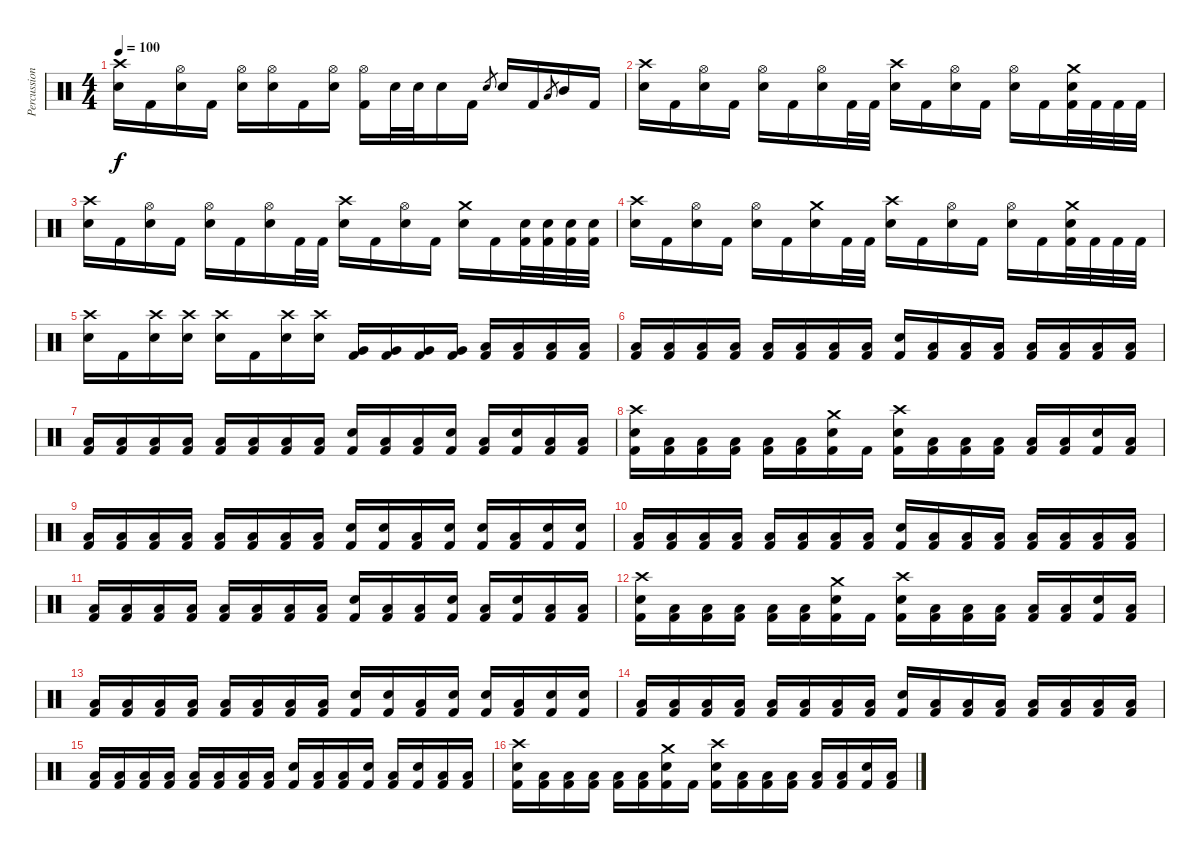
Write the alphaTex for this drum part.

\track ("Percussion" "Percussion") {instrument percussion}
\staff {score}
\articulation defaults
\ts (4 4)
\tempo 100
\clef neutral
\ks c
("Crash high (hit)" "Electric Snare (hit)").16{dy f} "Kick (hit) 2".16 ("Hi-Hat (open)" "Electric Snare (hit)").16 "Kick (hit) 2".16 ("Hi-Hat (open)" "Electric Snare (hit)").16 ("Hi-Hat (open)" "Electric Snare (hit)").16 "Kick (hit) 2".16 ("Hi-Hat (open)" "Electric Snare (hit)").16 ("Hi-Hat (open)" "Kick (hit) 2").16 "Electric Snare (hit)".32 "Electric Snare (hit)".32 "Electric Snare (hit)".16 "Kick (hit) 2".16 "Electric Snare (hit)".8{gr} "Electric Snare (hit)".16 "Kick (hit) 2".16 "Low Tom (hit)".8{gr} "Mid Tom (hit)".16 "Kick (hit) 2".16 |
("Crash high (hit)" "Electric Snare (hit)").16 "Kick (hit) 2".16 ("Hi-Hat (open)" "Electric Snare (hit)").16 "Kick (hit) 2".16 ("Hi-Hat (open)" "Electric Snare (hit)").16 "Kick (hit) 2".16 ("Hi-Hat (open)" "Electric Snare (hit)").16 "Kick (hit) 2".32 "Kick (hit) 2".32 ("Crash high (hit)" "Electric Snare (hit)").16 "Kick (hit) 2".16 ("Hi-Hat (open)" "Electric Snare (hit)").16 "Kick (hit) 2".16 ("Hi-Hat (open)" "Electric Snare (hit)").16 "Kick (hit) 2".16 ("Crash medium (hit)" "Electric Snare (hit)" "Kick (hit) 2").32 "Kick (hit) 2".32 "Kick (hit) 2".32 "Kick (hit) 2".32 |
("Crash high (hit)" "Electric Snare (hit)").16 "Kick (hit) 2".16 ("Hi-Hat (open)" "Electric Snare (hit)").16 "Kick (hit) 2".16 ("Hi-Hat (open)" "Electric Snare (hit)").16 "Kick (hit) 2".16 ("Hi-Hat (open)" "Electric Snare (hit)").16 "Kick (hit) 2".32 "Kick (hit) 2".32 ("Crash high (hit)" "Electric Snare (hit)").16 "Kick (hit) 2".16 ("Hi-Hat (open)" "Electric Snare (hit)").16 "Kick (hit) 2".16 ("Crash medium (hit)" "Electric Snare (hit)").16 "Kick (hit) 2".16 ("Electric Snare (hit)" "Kick (hit) 2").32 ("Electric Snare (hit)" "Kick (hit) 2").32 ("Electric Snare (hit)" "Kick (hit) 2").32 ("Electric Snare (hit)" "Kick (hit) 2").32 |
("Crash high (hit)" "Electric Snare (hit)").16 "Kick (hit) 2".16 ("Hi-Hat (open)" "Electric Snare (hit)").16 "Kick (hit) 2".16 ("Hi-Hat (open)" "Electric Snare (hit)").16 "Kick (hit) 2".16 ("Crash medium (hit)" "Electric Snare (hit)").16 "Kick (hit) 2".32 "Kick (hit) 2".32 ("Crash high (hit)" "Electric Snare (hit)").16 "Kick (hit) 2".16 ("Hi-Hat (open)" "Electric Snare (hit)").16 "Kick (hit) 2".16 ("Hi-Hat (open)" "Electric Snare (hit)").16 "Kick (hit) 2".16 ("Crash medium (hit)" "Electric Snare (hit)" "Kick (hit) 2").32 "Kick (hit) 2".32 "Kick (hit) 2".32 "Kick (hit) 2".32 |
("Crash high (hit)" "Electric Snare (hit)").16 "Kick (hit) 2".16 ("Crash high (hit)" "Electric Snare (hit)").16 ("Crash high (hit)" "Electric Snare (hit)").16 ("Crash high (hit)" "Electric Snare (hit)").16 "Kick (hit) 2".16 ("Crash high (hit)" "Electric Snare (hit)").16 ("Crash high (hit)" "Electric Snare (hit)").16 ("Very Low Tom (hit)" "Kick (hit) 2").16 ("Very Low Tom (hit)" "Kick (hit) 2").16 ("Very Low Tom (hit)" "Kick (hit) 2").16 ("Very Low Tom (hit)" "Kick (hit) 2").16 ("Low Tom (hit)" "Kick (hit) 2").16 ("Low Tom (hit)" "Kick (hit) 2").16 ("Low Tom (hit)" "Kick (hit) 2").16 ("Low Tom (hit)" "Kick (hit) 2").16 |
("Low Floor Tom (hit)" "Kick (hit) 2").16 ("Low Floor Tom (hit)" "Kick (hit) 2").16 ("Low Floor Tom (hit)" "Kick (hit) 2").16 ("Low Floor Tom (hit)" "Kick (hit) 2").16 ("Low Floor Tom (hit)" "Kick (hit) 2").16 ("Low Floor Tom (hit)" "Kick (hit) 2").16 ("Low Floor Tom (hit)" "Kick (hit) 2").16 ("Low Floor Tom (hit)" "Kick (hit) 2").16 ("Electric Snare (hit)" "Kick (hit) 2").16 ("Low Floor Tom (hit)" "Kick (hit) 2").16 ("Low Floor Tom (hit)" "Kick (hit) 2").16 ("Low Floor Tom (hit)" "Kick (hit) 2").16 ("Low Floor Tom (hit)" "Kick (hit) 2").16 ("Low Floor Tom (hit)" "Kick (hit) 2").16 ("Low Floor Tom (hit)" "Kick (hit) 2").16 ("Low Floor Tom (hit)" "Kick (hit) 2").16 |
("Low Floor Tom (hit)" "Kick (hit) 2").16 ("Low Floor Tom (hit)" "Kick (hit) 2").16 ("Low Floor Tom (hit)" "Kick (hit) 2").16 ("Low Floor Tom (hit)" "Kick (hit) 2").16 ("Low Floor Tom (hit)" "Kick (hit) 2").16 ("Low Floor Tom (hit)" "Kick (hit) 2").16 ("Low Floor Tom (hit)" "Kick (hit) 2").16 ("Low Floor Tom (hit)" "Kick (hit) 2").16 ("Electric Snare (hit)" "Kick (hit) 2").16 ("Low Floor Tom (hit)" "Kick (hit) 2").16 ("Low Floor Tom (hit)" "Kick (hit) 2").16 ("Electric Snare (hit)" "Kick (hit) 2").16 ("Low Floor Tom (hit)" "Kick (hit) 2").16 ("Electric Snare (hit)" "Kick (hit) 2").16 ("Low Floor Tom (hit)" "Kick (hit) 2").16 ("Low Floor Tom (hit)" "Kick (hit) 2").16 |
("Crash high (hit)" "Electric Snare (hit)" "Kick (hit) 2").16 ("Low Floor Tom (hit)" "Kick (hit) 2").16 ("Low Floor Tom (hit)" "Kick (hit) 2").16 ("Low Floor Tom (hit)" "Kick (hit) 2").16 ("Low Floor Tom (hit)" "Kick (hit) 2").16 ("Low Floor Tom (hit)" "Kick (hit) 2").16 ("Crash medium (hit)" "Electric Snare (hit)" "Kick (hit) 2").16 "Kick (hit) 2".16 ("Crash high (hit)" "Electric Snare (hit)" "Kick (hit) 2").16 ("Low Floor Tom (hit)" "Kick (hit) 2").16 ("Low Floor Tom (hit)" "Kick (hit) 2").16 ("Low Floor Tom (hit)" "Kick (hit) 2").16 ("Low Floor Tom (hit)" "Kick (hit) 2").16 ("Low Floor Tom (hit)" "Kick (hit) 2").16 ("Electric Snare (hit)" "Kick (hit) 2").16 ("Low Floor Tom (hit)" "Kick (hit) 2").16 |
("Low Floor Tom (hit)" "Kick (hit) 2").16 ("Low Floor Tom (hit)" "Kick (hit) 2").16 ("Low Floor Tom (hit)" "Kick (hit) 2").16 ("Low Floor Tom (hit)" "Kick (hit) 2").16 ("Low Floor Tom (hit)" "Kick (hit) 2").16 ("Low Floor Tom (hit)" "Kick (hit) 2").16 ("Low Floor Tom (hit)" "Kick (hit) 2").16 ("Low Floor Tom (hit)" "Kick (hit) 2").16 ("Electric Snare (hit)" "Kick (hit) 2").16 ("Electric Snare (hit)" "Kick (hit) 2").16 ("Low Floor Tom (hit)" "Kick (hit) 2").16 ("Electric Snare (hit)" "Kick (hit) 2").16 ("Electric Snare (hit)" "Kick (hit) 2").16 ("Low Floor Tom (hit)" "Kick (hit) 2").16 ("Electric Snare (hit)" "Kick (hit) 2").16 ("Electric Snare (hit)" "Kick (hit) 2").16 |
("Low Floor Tom (hit)" "Kick (hit) 2").16 ("Low Floor Tom (hit)" "Kick (hit) 2").16 ("Low Floor Tom (hit)" "Kick (hit) 2").16 ("Low Floor Tom (hit)" "Kick (hit) 2").16 ("Low Floor Tom (hit)" "Kick (hit) 2").16 ("Low Floor Tom (hit)" "Kick (hit) 2").16 ("Low Floor Tom (hit)" "Kick (hit) 2").16 ("Low Floor Tom (hit)" "Kick (hit) 2").16 ("Electric Snare (hit)" "Kick (hit) 2").16 ("Low Floor Tom (hit)" "Kick (hit) 2").16 ("Low Floor Tom (hit)" "Kick (hit) 2").16 ("Low Floor Tom (hit)" "Kick (hit) 2").16 ("Low Floor Tom (hit)" "Kick (hit) 2").16 ("Low Floor Tom (hit)" "Kick (hit) 2").16 ("Low Floor Tom (hit)" "Kick (hit) 2").16 ("Low Floor Tom (hit)" "Kick (hit) 2").16 |
("Low Floor Tom (hit)" "Kick (hit) 2").16 ("Low Floor Tom (hit)" "Kick (hit) 2").16 ("Low Floor Tom (hit)" "Kick (hit) 2").16 ("Low Floor Tom (hit)" "Kick (hit) 2").16 ("Low Floor Tom (hit)" "Kick (hit) 2").16 ("Low Floor Tom (hit)" "Kick (hit) 2").16 ("Low Floor Tom (hit)" "Kick (hit) 2").16 ("Low Floor Tom (hit)" "Kick (hit) 2").16 ("Electric Snare (hit)" "Kick (hit) 2").16 ("Low Floor Tom (hit)" "Kick (hit) 2").16 ("Low Floor Tom (hit)" "Kick (hit) 2").16 ("Electric Snare (hit)" "Kick (hit) 2").16 ("Low Floor Tom (hit)" "Kick (hit) 2").16 ("Electric Snare (hit)" "Kick (hit) 2").16 ("Low Floor Tom (hit)" "Kick (hit) 2").16 ("Low Floor Tom (hit)" "Kick (hit) 2").16 |
("Crash high (hit)" "Electric Snare (hit)" "Kick (hit) 2").16 ("Low Floor Tom (hit)" "Kick (hit) 2").16 ("Low Floor Tom (hit)" "Kick (hit) 2").16 ("Low Floor Tom (hit)" "Kick (hit) 2").16 ("Low Floor Tom (hit)" "Kick (hit) 2").16 ("Low Floor Tom (hit)" "Kick (hit) 2").16 ("Crash medium (hit)" "Electric Snare (hit)" "Kick (hit) 2").16 "Kick (hit) 2".16 ("Crash high (hit)" "Electric Snare (hit)" "Kick (hit) 2").16 ("Low Floor Tom (hit)" "Kick (hit) 2").16 ("Low Floor Tom (hit)" "Kick (hit) 2").16 ("Low Floor Tom (hit)" "Kick (hit) 2").16 ("Low Floor Tom (hit)" "Kick (hit) 2").16 ("Low Floor Tom (hit)" "Kick (hit) 2").16 ("Electric Snare (hit)" "Kick (hit) 2").16 ("Low Floor Tom (hit)" "Kick (hit) 2").16 |
("Low Floor Tom (hit)" "Kick (hit) 2").16 ("Low Floor Tom (hit)" "Kick (hit) 2").16 ("Low Floor Tom (hit)" "Kick (hit) 2").16 ("Low Floor Tom (hit)" "Kick (hit) 2").16 ("Low Floor Tom (hit)" "Kick (hit) 2").16 ("Low Floor Tom (hit)" "Kick (hit) 2").16 ("Low Floor Tom (hit)" "Kick (hit) 2").16 ("Low Floor Tom (hit)" "Kick (hit) 2").16 ("Electric Snare (hit)" "Kick (hit) 2").16 ("Electric Snare (hit)" "Kick (hit) 2").16 ("Low Floor Tom (hit)" "Kick (hit) 2").16 ("Electric Snare (hit)" "Kick (hit) 2").16 ("Electric Snare (hit)" "Kick (hit) 2").16 ("Low Floor Tom (hit)" "Kick (hit) 2").16 ("Electric Snare (hit)" "Kick (hit) 2").16 ("Electric Snare (hit)" "Kick (hit) 2").16 |
("Low Floor Tom (hit)" "Kick (hit) 2").16 ("Low Floor Tom (hit)" "Kick (hit) 2").16 ("Low Floor Tom (hit)" "Kick (hit) 2").16 ("Low Floor Tom (hit)" "Kick (hit) 2").16 ("Low Floor Tom (hit)" "Kick (hit) 2").16 ("Low Floor Tom (hit)" "Kick (hit) 2").16 ("Low Floor Tom (hit)" "Kick (hit) 2").16 ("Low Floor Tom (hit)" "Kick (hit) 2").16 ("Electric Snare (hit)" "Kick (hit) 2").16 ("Low Floor Tom (hit)" "Kick (hit) 2").16 ("Low Floor Tom (hit)" "Kick (hit) 2").16 ("Low Floor Tom (hit)" "Kick (hit) 2").16 ("Low Floor Tom (hit)" "Kick (hit) 2").16 ("Low Floor Tom (hit)" "Kick (hit) 2").16 ("Low Floor Tom (hit)" "Kick (hit) 2").16 ("Low Floor Tom (hit)" "Kick (hit) 2").16 |
("Low Floor Tom (hit)" "Kick (hit) 2").16 ("Low Floor Tom (hit)" "Kick (hit) 2").16 ("Low Floor Tom (hit)" "Kick (hit) 2").16 ("Low Floor Tom (hit)" "Kick (hit) 2").16 ("Low Floor Tom (hit)" "Kick (hit) 2").16 ("Low Floor Tom (hit)" "Kick (hit) 2").16 ("Low Floor Tom (hit)" "Kick (hit) 2").16 ("Low Floor Tom (hit)" "Kick (hit) 2").16 ("Electric Snare (hit)" "Kick (hit) 2").16 ("Low Floor Tom (hit)" "Kick (hit) 2").16 ("Low Floor Tom (hit)" "Kick (hit) 2").16 ("Electric Snare (hit)" "Kick (hit) 2").16 ("Low Floor Tom (hit)" "Kick (hit) 2").16 ("Electric Snare (hit)" "Kick (hit) 2").16 ("Low Floor Tom (hit)" "Kick (hit) 2").16 ("Low Floor Tom (hit)" "Kick (hit) 2").16 |
("Crash high (hit)" "Electric Snare (hit)" "Kick (hit) 2").16 ("Low Floor Tom (hit)" "Kick (hit) 2").16 ("Low Floor Tom (hit)" "Kick (hit) 2").16 ("Low Floor Tom (hit)" "Kick (hit) 2").16 ("Low Floor Tom (hit)" "Kick (hit) 2").16 ("Low Floor Tom (hit)" "Kick (hit) 2").16 ("Crash medium (hit)" "Electric Snare (hit)" "Kick (hit) 2").16 "Kick (hit) 2".16 ("Crash high (hit)" "Electric Snare (hit)" "Kick (hit) 2").16 ("Low Floor Tom (hit)" "Kick (hit) 2").16 ("Low Floor Tom (hit)" "Kick (hit) 2").16 ("Low Floor Tom (hit)" "Kick (hit) 2").16 ("Low Floor Tom (hit)" "Kick (hit) 2").16 ("Low Floor Tom (hit)" "Kick (hit) 2").16 ("Electric Snare (hit)" "Kick (hit) 2").16 ("Low Floor Tom (hit)" "Kick (hit) 2").16
